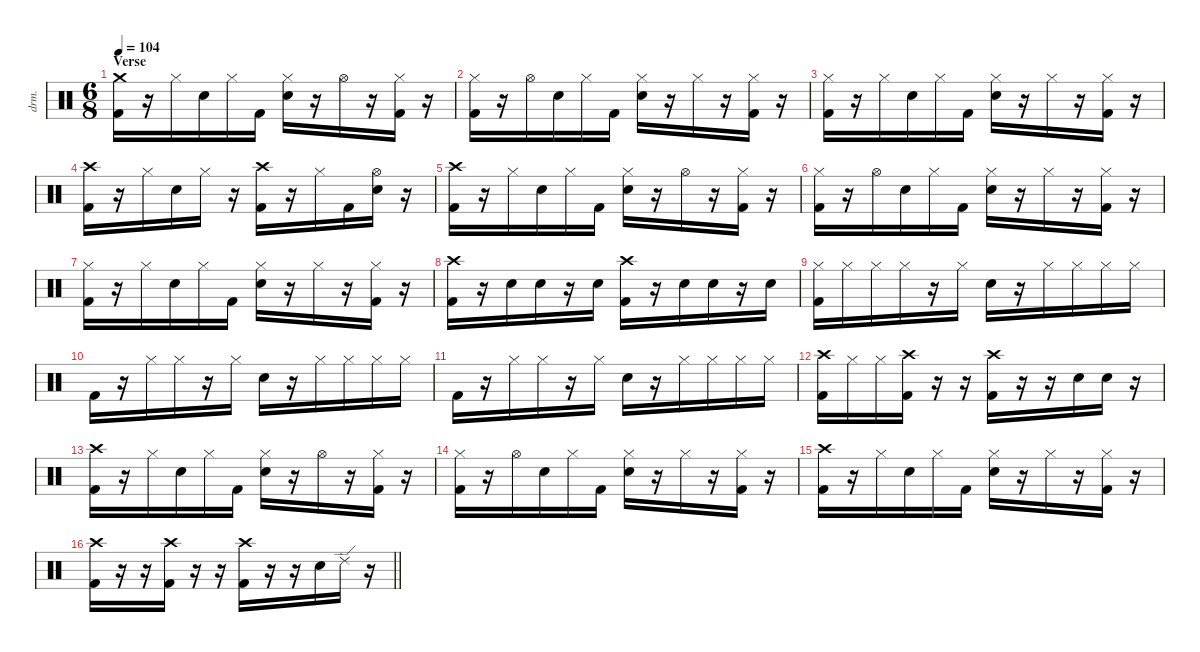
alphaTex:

\defaultSystemsLayout 4
\hideDynamics
\bracketExtendMode nobrackets
\otherSystemsTrackNameOrientation horizontal
\track ("Gene Hoglan" "drm.") {instrument percussion}
\staff {score}
\articulation defaults
\ts (6 8)
\section ("" "Verse")
\tempo 104
\clef neutral
\ks c
("Crash medium (hit)" "Kick (hit) 2").16{dy f beam Down} r.16{beam Down} "Hi-Hat (closed)".16{beam Down} "Snare (hit) 2".16{beam Down} "Hi-Hat (closed)".16{beam Down} "Kick (hit) 2".16{beam Down} ("Hi-Hat (closed)" "Snare (hit) 2").16{beam Down} r.16{beam Down} "Hi-Hat (open)".16{beam Down} r.16{beam Down} ("Hi-Hat (closed)" "Kick (hit) 2").16{beam Down} r.16{beam Down} |
("Hi-Hat (closed)" "Kick (hit) 2").16{beam Down} r.16{beam Down} "Hi-Hat (open)".16{beam Down} "Snare (hit) 2".16{beam Down} "Hi-Hat (closed)".16{beam Down} "Kick (hit) 2".16{beam Down} ("Hi-Hat (closed)" "Snare (hit) 2").16{beam Down} r.16{beam Down} "Hi-Hat (closed)".16{beam Down} r.16{beam Down} ("Hi-Hat (closed)" "Kick (hit) 2").16{beam Down} r.16{beam Down} |
("Hi-Hat (closed)" "Kick (hit) 2").16{beam Down} r.16{beam Down} "Hi-Hat (closed)".16{beam Down} "Snare (hit) 2".16{beam Down} "Hi-Hat (closed)".16{beam Down} "Kick (hit) 2".16{beam Down} ("Hi-Hat (closed)" "Snare (hit) 2").16{beam Down} r.16{beam Down} "Hi-Hat (closed)".16{beam Down} r.16{beam Down} ("Hi-Hat (closed)" "Kick (hit) 2").16{beam Down} r.16{beam Down} |
("Crash high (hit)" "Kick (hit) 2").16{beam Down} r.16{beam Down} "Hi-Hat (closed)".16{beam Down} "Snare (hit) 2".16{beam Down} "Hi-Hat (closed)".16{beam Down} r.16{beam Down} ("Crash high (hit)" "Kick (hit) 2").16{beam Down} r.16{beam Down} "Hi-Hat (closed)".16{beam Down} "Kick (hit) 2".16{beam Down} ("Hi-Hat (open)" "Snare (hit) 2").16{beam Down} r.16{beam Down} |
("Crash high (hit)" "Kick (hit) 2").16{beam Down} r.16{beam Down} "Hi-Hat (closed)".16{beam Down} "Snare (hit) 2".16{beam Down} "Hi-Hat (closed)".16{beam Down} "Kick (hit) 2".16{beam Down} ("Hi-Hat (closed)" "Snare (hit) 2").16{beam Down} r.16{beam Down} "Hi-Hat (open)".16{beam Down} r.16{beam Down} ("Hi-Hat (closed)" "Kick (hit) 2").16{beam Down} r.16{beam Down} |
("Hi-Hat (closed)" "Kick (hit) 2").16{beam Down} r.16{beam Down} "Hi-Hat (open)".16{beam Down} "Snare (hit) 2".16{beam Down} "Hi-Hat (closed)".16{beam Down} "Kick (hit) 2".16{beam Down} ("Hi-Hat (closed)" "Snare (hit) 2").16{beam Down} r.16{beam Down} "Hi-Hat (closed)".16{beam Down} r.16{beam Down} ("Hi-Hat (closed)" "Kick (hit) 2").16{beam Down} r.16{beam Down} |
("Hi-Hat (closed)" "Kick (hit) 2").16{beam Down} r.16{beam Down} "Hi-Hat (closed)".16{beam Down} "Snare (hit) 2".16{beam Down} "Hi-Hat (closed)".16{beam Down} "Kick (hit) 2".16{beam Down} ("Hi-Hat (closed)" "Snare (hit) 2").16{beam Down} r.16{beam Down} "Hi-Hat (closed)".16{beam Down} r.16{beam Down} ("Hi-Hat (closed)" "Kick (hit) 2").16{beam Down} r.16{beam Down} |
("Crash high (hit)" "Kick (hit) 2").16{beam Down} r.16{beam Down} "Snare (hit) 2".16{beam Down} "Snare (hit) 2".16{beam Down} r.16{beam Down} "Snare (hit) 2".16{beam Down} ("Crash high (hit)" "Kick (hit) 2").16{beam Down} r.16{beam Down} "Snare (hit) 2".16{beam Down} "Snare (hit) 2".16{beam Down} r.16{beam Down} "Snare (hit) 2".16{beam Down} |
("Hi-Hat (closed)" "Kick (hit) 2").16{beam Down} "Hi-Hat (closed)".16{beam Down} "Hi-Hat (closed)".16{beam Down} "Hi-Hat (closed)".16{beam Down} r.16{beam Down} "Hi-Hat (closed)".16{beam Down} "Snare (hit) 2".16{beam Down} r.16{beam Down} "Hi-Hat (closed)".16{beam Down} "Hi-Hat (closed)".16{beam Down} "Hi-Hat (closed)".16{beam Down} "Hi-Hat (closed)".16{beam Down} |
"Kick (hit) 2".16{beam Down} r.16{beam Down} "Hi-Hat (closed)".16{beam Down} "Hi-Hat (closed)".16{beam Down} r.16{beam Down} "Hi-Hat (closed)".16{beam Down} "Snare (hit) 2".16{beam Down} r.16{beam Down} "Hi-Hat (closed)".16{beam Down} "Hi-Hat (closed)".16{beam Down} "Hi-Hat (closed)".16{beam Down} "Hi-Hat (closed)".16{beam Down} |
"Kick (hit) 2".16{beam Down} r.16{beam Down} "Hi-Hat (closed)".16{beam Down} "Hi-Hat (closed)".16{beam Down} r.16{beam Down} "Hi-Hat (closed)".16{beam Down} "Snare (hit) 2".16{beam Down} r.16{beam Down} "Hi-Hat (closed)".16{beam Down} "Hi-Hat (closed)".16{beam Down} "Hi-Hat (closed)".16{beam Down} "Hi-Hat (closed)".16{beam Down} |
("Crash high (hit)" "Kick (hit) 2").16{beam Down} "Hi-Hat (closed)".16{beam Down} "Hi-Hat (closed)".16{beam Down} ("Crash high (hit)" "Kick (hit) 2").16{beam Down} r.16{beam Down} r.16{beam Down} ("Crash high (hit)" "Kick (hit) 2").16{beam Down} r.16{beam Down} r.16{beam Down} "Snare (hit) 2".16{beam Down} "Snare (hit) 2".16{beam Down} r.16{beam Down} |
("Crash high (hit)" "Kick (hit) 2").16{beam Down} r.16{beam Down} "Hi-Hat (closed)".16{beam Down} "Snare (hit) 2".16{beam Down} "Hi-Hat (closed)".16{beam Down} "Kick (hit) 2".16{beam Down} ("Hi-Hat (closed)" "Snare (hit) 2").16{beam Down} r.16{beam Down} "Hi-Hat (open)".16{beam Down} r.16{beam Down} ("Hi-Hat (closed)" "Kick (hit) 2").16{beam Down} r.16{beam Down} |
("Hi-Hat (closed)" "Kick (hit) 2").16{beam Down} r.16{beam Down} "Hi-Hat (open)".16{beam Down} "Snare (hit) 2".16{beam Down} "Hi-Hat (closed)".16{beam Down} "Kick (hit) 2".16{beam Down} ("Hi-Hat (closed)" "Snare (hit) 2").16{beam Down} r.16{beam Down} "Hi-Hat (closed)".16{beam Down} r.16{beam Down} ("Hi-Hat (closed)" "Kick (hit) 2").16{beam Down} r.16{beam Down} |
("Crash high (hit)" "Kick (hit) 2").16{beam Down} r.16{beam Down} "Hi-Hat (closed)".16{beam Down} "Snare (hit) 2".16{beam Down} "Hi-Hat (closed)".16{beam Down} "Kick (hit) 2".16{beam Down} ("Hi-Hat (closed)" "Snare (hit) 2").16{beam Down} r.16{beam Down} "Hi-Hat (closed)".16{beam Down} r.16{beam Down} ("Hi-Hat (closed)" "Kick (hit) 2").16{beam Down} r.16{beam Down} |
\barLineRight lightlight
("Crash high (hit)" "Kick (hit) 2").16{beam Down} r.16{beam Down} r.16{beam Down} ("Crash high (hit)" "Kick (hit) 2").16{beam Down} r.16{beam Down} r.16{beam Down} ("Crash high (hit)" "Kick (hit) 2").16{beam Down} r.16{beam Down} r.16{beam Down} "Snare (hit) 2".16{beam Down} "Ride (edge) 2".16{beam Down} r.16{beam Down}
